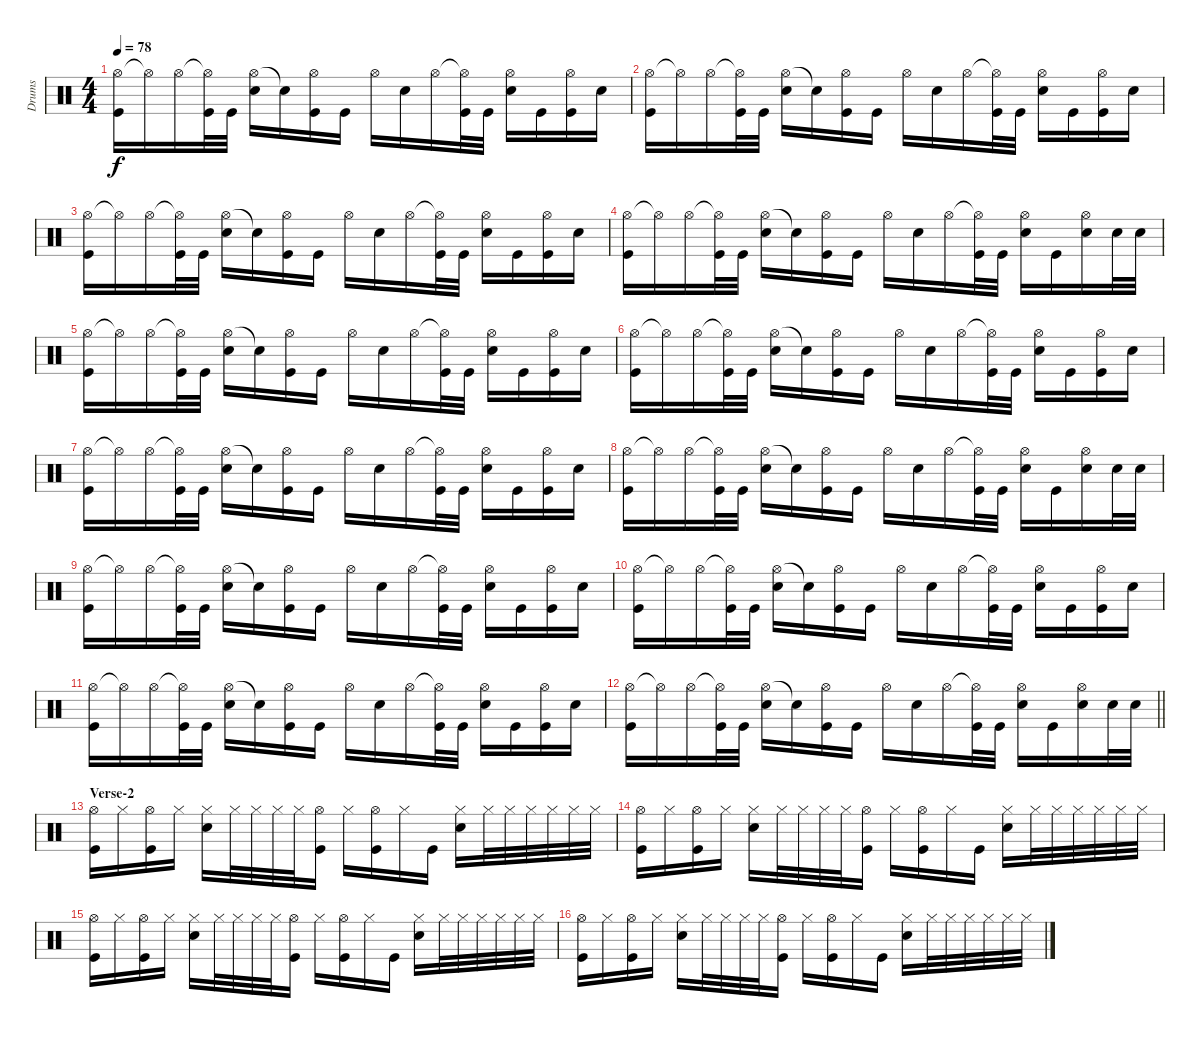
\track ("Drums" "Drums") {instrument percussion}
\staff {score}
\articulation defaults
\ts (4 4)
\tempo 78
\clef neutral
\ks c
("Hi-Hat (open)" "Kick (hit)").16{dy f} "Hi-Hat (open)"{t}.16 "Hi-Hat (open)".16 ("Hi-Hat (open)"{t} "Kick (hit)").32 "Kick (hit)".32 ("Hi-Hat (open)" "Electric Snare (hit)").16 "Snare (hit)"{t}.16 ("Hi-Hat (open)" "Kick (hit)").16 "Kick (hit)".16 "Hi-Hat (open)".16 "Electric Snare (hit)".16 "Hi-Hat (open)".16 ("Hi-Hat (open)"{t} "Kick (hit)").32 "Kick (hit)".32 ("Hi-Hat (open)" "Electric Snare (hit)").16 "Kick (hit)".16 ("Hi-Hat (open)" "Kick (hit)").16 "Electric Snare (hit)".16 |
("Hi-Hat (open)" "Kick (hit)").16 "Hi-Hat (open)"{t}.16 "Hi-Hat (open)".16 ("Hi-Hat (open)"{t} "Kick (hit)").32 "Kick (hit)".32 ("Hi-Hat (open)" "Electric Snare (hit)").16 "Snare (hit)"{t}.16 ("Hi-Hat (open)" "Kick (hit)").16 "Kick (hit)".16 "Hi-Hat (open)".16 "Electric Snare (hit)".16 "Hi-Hat (open)".16 ("Hi-Hat (open)"{t} "Kick (hit)").32 "Kick (hit)".32 ("Hi-Hat (open)" "Electric Snare (hit)").16 "Kick (hit)".16 ("Hi-Hat (open)" "Kick (hit)").16 "Electric Snare (hit)".16 |
("Hi-Hat (open)" "Kick (hit)").16 "Hi-Hat (open)"{t}.16 "Hi-Hat (open)".16 ("Hi-Hat (open)"{t} "Kick (hit)").32 "Kick (hit)".32 ("Hi-Hat (open)" "Electric Snare (hit)").16 "Snare (hit)"{t}.16 ("Hi-Hat (open)" "Kick (hit)").16 "Kick (hit)".16 "Hi-Hat (open)".16 "Electric Snare (hit)".16 "Hi-Hat (open)".16 ("Hi-Hat (open)"{t} "Kick (hit)").32 "Kick (hit)".32 ("Hi-Hat (open)" "Electric Snare (hit)").16 "Kick (hit)".16 ("Hi-Hat (open)" "Kick (hit)").16 "Electric Snare (hit)".16 |
("Hi-Hat (open)" "Kick (hit)").16 "Hi-Hat (open)"{t}.16 "Hi-Hat (open)".16 ("Hi-Hat (open)"{t} "Kick (hit)").32 "Kick (hit)".32 ("Hi-Hat (open)" "Electric Snare (hit)").16 "Snare (hit)"{t}.16 ("Hi-Hat (open)" "Kick (hit)").16 "Kick (hit)".16 "Hi-Hat (open)".16 "Electric Snare (hit)".16 "Hi-Hat (open)".16 ("Hi-Hat (open)"{t} "Kick (hit)").32 "Kick (hit)".32 ("Hi-Hat (open)" "Electric Snare (hit)").16 "Kick (hit)".16 ("Hi-Hat (open)" "Electric Snare (hit)").16 "Electric Snare (hit)".32 "Electric Snare (hit)".32 |
("Hi-Hat (open)" "Kick (hit)").16 "Hi-Hat (open)"{t}.16 "Hi-Hat (open)".16 ("Hi-Hat (open)"{t} "Kick (hit)").32 "Kick (hit)".32 ("Hi-Hat (open)" "Electric Snare (hit)").16 "Snare (hit)"{t}.16 ("Hi-Hat (open)" "Kick (hit)").16 "Kick (hit)".16 "Hi-Hat (open)".16 "Electric Snare (hit)".16 "Hi-Hat (open)".16 ("Hi-Hat (open)"{t} "Kick (hit)").32 "Kick (hit)".32 ("Hi-Hat (open)" "Electric Snare (hit)").16 "Kick (hit)".16 ("Hi-Hat (open)" "Kick (hit)").16 "Electric Snare (hit)".16 |
("Hi-Hat (open)" "Kick (hit)").16 "Hi-Hat (open)"{t}.16 "Hi-Hat (open)".16 ("Hi-Hat (open)"{t} "Kick (hit)").32 "Kick (hit)".32 ("Hi-Hat (open)" "Electric Snare (hit)").16 "Snare (hit)"{t}.16 ("Hi-Hat (open)" "Kick (hit)").16 "Kick (hit)".16 "Hi-Hat (open)".16 "Electric Snare (hit)".16 "Hi-Hat (open)".16 ("Hi-Hat (open)"{t} "Kick (hit)").32 "Kick (hit)".32 ("Hi-Hat (open)" "Electric Snare (hit)").16 "Kick (hit)".16 ("Hi-Hat (open)" "Kick (hit)").16 "Electric Snare (hit)".16 |
("Hi-Hat (open)" "Kick (hit)").16 "Hi-Hat (open)"{t}.16 "Hi-Hat (open)".16 ("Hi-Hat (open)"{t} "Kick (hit)").32 "Kick (hit)".32 ("Hi-Hat (open)" "Electric Snare (hit)").16 "Snare (hit)"{t}.16 ("Hi-Hat (open)" "Kick (hit)").16 "Kick (hit)".16 "Hi-Hat (open)".16 "Electric Snare (hit)".16 "Hi-Hat (open)".16 ("Hi-Hat (open)"{t} "Kick (hit)").32 "Kick (hit)".32 ("Hi-Hat (open)" "Electric Snare (hit)").16 "Kick (hit)".16 ("Hi-Hat (open)" "Kick (hit)").16 "Electric Snare (hit)".16 |
("Hi-Hat (open)" "Kick (hit)").16 "Hi-Hat (open)"{t}.16 "Hi-Hat (open)".16 ("Hi-Hat (open)"{t} "Kick (hit)").32 "Kick (hit)".32 ("Hi-Hat (open)" "Electric Snare (hit)").16 "Snare (hit)"{t}.16 ("Hi-Hat (open)" "Kick (hit)").16 "Kick (hit)".16 "Hi-Hat (open)".16 "Electric Snare (hit)".16 "Hi-Hat (open)".16 ("Hi-Hat (open)"{t} "Kick (hit)").32 "Kick (hit)".32 ("Hi-Hat (open)" "Electric Snare (hit)").16 "Kick (hit)".16 ("Hi-Hat (open)" "Electric Snare (hit)").16 "Electric Snare (hit)".32 "Electric Snare (hit)".32 |
("Hi-Hat (open)" "Kick (hit)").16 "Hi-Hat (open)"{t}.16 "Hi-Hat (open)".16 ("Hi-Hat (open)"{t} "Kick (hit)").32 "Kick (hit)".32 ("Hi-Hat (open)" "Electric Snare (hit)").16 "Snare (hit)"{t}.16 ("Hi-Hat (open)" "Kick (hit)").16 "Kick (hit)".16 "Hi-Hat (open)".16 "Electric Snare (hit)".16 "Hi-Hat (open)".16 ("Hi-Hat (open)"{t} "Kick (hit)").32 "Kick (hit)".32 ("Hi-Hat (open)" "Electric Snare (hit)").16 "Kick (hit)".16 ("Hi-Hat (open)" "Kick (hit)").16 "Electric Snare (hit)".16 |
("Hi-Hat (open)" "Kick (hit)").16 "Hi-Hat (open)"{t}.16 "Hi-Hat (open)".16 ("Hi-Hat (open)"{t} "Kick (hit)").32 "Kick (hit)".32 ("Hi-Hat (open)" "Electric Snare (hit)").16 "Snare (hit)"{t}.16 ("Hi-Hat (open)" "Kick (hit)").16 "Kick (hit)".16 "Hi-Hat (open)".16 "Electric Snare (hit)".16 "Hi-Hat (open)".16 ("Hi-Hat (open)"{t} "Kick (hit)").32 "Kick (hit)".32 ("Hi-Hat (open)" "Electric Snare (hit)").16 "Kick (hit)".16 ("Hi-Hat (open)" "Kick (hit)").16 "Electric Snare (hit)".16 |
("Hi-Hat (open)" "Kick (hit)").16 "Hi-Hat (open)"{t}.16 "Hi-Hat (open)".16 ("Hi-Hat (open)"{t} "Kick (hit)").32 "Kick (hit)".32 ("Hi-Hat (open)" "Electric Snare (hit)").16 "Snare (hit)"{t}.16 ("Hi-Hat (open)" "Kick (hit)").16 "Kick (hit)".16 "Hi-Hat (open)".16 "Electric Snare (hit)".16 "Hi-Hat (open)".16 ("Hi-Hat (open)"{t} "Kick (hit)").32 "Kick (hit)".32 ("Hi-Hat (open)" "Electric Snare (hit)").16 "Kick (hit)".16 ("Hi-Hat (open)" "Kick (hit)").16 "Electric Snare (hit)".16 |
\barLineRight lightlight
("Hi-Hat (open)" "Kick (hit)").16 "Hi-Hat (open)"{t}.16 "Hi-Hat (open)".16 ("Hi-Hat (open)"{t} "Kick (hit)").32 "Kick (hit)".32 ("Hi-Hat (open)" "Electric Snare (hit)").16 "Snare (hit)"{t}.16 ("Hi-Hat (open)" "Kick (hit)").16 "Kick (hit)".16 "Hi-Hat (open)".16 "Electric Snare (hit)".16 "Hi-Hat (open)".16 ("Hi-Hat (open)"{t} "Kick (hit)").32 "Kick (hit)".32 ("Hi-Hat (open)" "Electric Snare (hit)").16 "Kick (hit)".16 ("Hi-Hat (open)" "Electric Snare (hit)").16 "Electric Snare (hit)".32 "Electric Snare (hit)".32 |
\section ("" "Verse-2")
("Hi-Hat (open)" "Kick (hit)").16 "Hi-Hat (closed)".16 ("Hi-Hat (open)" "Kick (hit)").16 "Hi-Hat (closed)".16 ("Hi-Hat (closed)" "Electric Snare (hit)").16 "Hi-Hat (closed)".32 "Hi-Hat (closed)".32 "Hi-Hat (closed)".32 "Hi-Hat (closed)".32 ("Hi-Hat (open)" "Kick (hit)").16 "Hi-Hat (closed)".16 ("Hi-Hat (open)" "Kick (hit)").16 "Hi-Hat (closed)".16 "Kick (hit)".16 ("Hi-Hat (closed)" "Electric Snare (hit)").16 "Hi-Hat (closed)".32 "Hi-Hat (closed)".32 "Hi-Hat (closed)".32 "Hi-Hat (closed)".32 "Hi-Hat (closed)".32 "Hi-Hat (closed)".32 |
("Hi-Hat (open)" "Kick (hit)").16 "Hi-Hat (closed)".16 ("Hi-Hat (open)" "Kick (hit)").16 "Hi-Hat (closed)".16 ("Hi-Hat (closed)" "Electric Snare (hit)").16 "Hi-Hat (closed)".32 "Hi-Hat (closed)".32 "Hi-Hat (closed)".32 "Hi-Hat (closed)".32 ("Hi-Hat (open)" "Kick (hit)").16 "Hi-Hat (closed)".16 ("Hi-Hat (open)" "Kick (hit)").16 "Hi-Hat (closed)".16 "Kick (hit)".16 ("Hi-Hat (closed)" "Electric Snare (hit)").16 "Hi-Hat (closed)".32 "Hi-Hat (closed)".32 "Hi-Hat (closed)".32 "Hi-Hat (closed)".32 "Hi-Hat (closed)".32 "Hi-Hat (closed)".32 |
("Hi-Hat (open)" "Kick (hit)").16 "Hi-Hat (closed)".16 ("Hi-Hat (open)" "Kick (hit)").16 "Hi-Hat (closed)".16 ("Hi-Hat (closed)" "Electric Snare (hit)").16 "Hi-Hat (closed)".32 "Hi-Hat (closed)".32 "Hi-Hat (closed)".32 "Hi-Hat (closed)".32 ("Hi-Hat (open)" "Kick (hit)").16 "Hi-Hat (closed)".16 ("Hi-Hat (open)" "Kick (hit)").16 "Hi-Hat (closed)".16 "Kick (hit)".16 ("Hi-Hat (closed)" "Electric Snare (hit)").16 "Hi-Hat (closed)".32 "Hi-Hat (closed)".32 "Hi-Hat (closed)".32 "Hi-Hat (closed)".32 "Hi-Hat (closed)".32 "Hi-Hat (closed)".32 |
("Hi-Hat (open)" "Kick (hit)").16 "Hi-Hat (closed)".16 ("Hi-Hat (open)" "Kick (hit)").16 "Hi-Hat (closed)".16 ("Hi-Hat (closed)" "Electric Snare (hit)").16 "Hi-Hat (closed)".32 "Hi-Hat (closed)".32 "Hi-Hat (closed)".32 "Hi-Hat (closed)".32 ("Hi-Hat (open)" "Kick (hit)").16 "Hi-Hat (closed)".16 ("Hi-Hat (open)" "Kick (hit)").16 "Hi-Hat (closed)".16 "Kick (hit)".16 ("Hi-Hat (closed)" "Electric Snare (hit)").16 "Hi-Hat (closed)".32 "Hi-Hat (closed)".32 "Hi-Hat (closed)".32 "Hi-Hat (closed)".32 "Hi-Hat (closed)".32 "Hi-Hat (closed)".32
